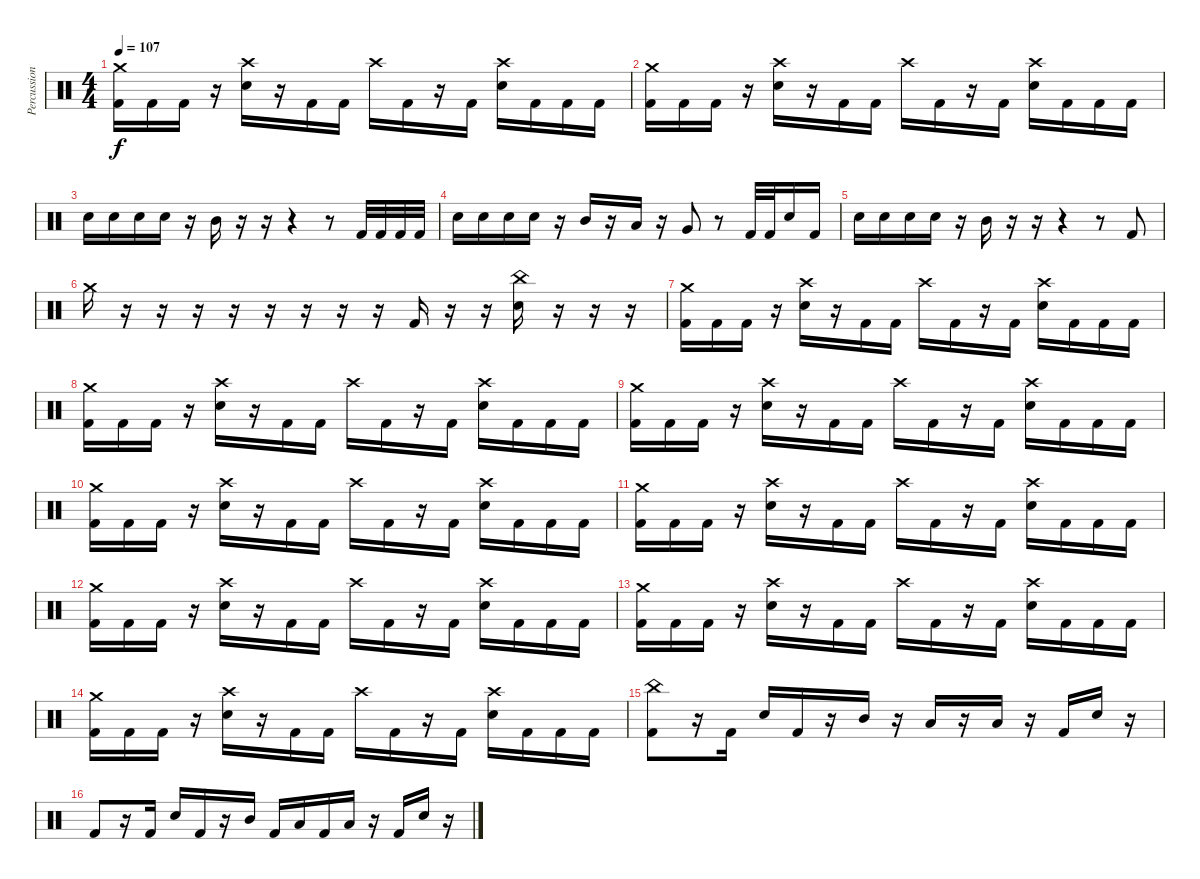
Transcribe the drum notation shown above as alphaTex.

\track ("Percussion" "Percussion") {instrument percussion}
\staff {score}
\articulation defaults
\ts (4 4)
\tempo 107
\clef neutral
\ks c
("Crash medium (hit)" "Kick (hit) 2").16{dy f} "Kick (hit) 2".16 "Kick (hit) 2".16 r.16 ("Crash high (hit)" "Electric Snare (hit)").16 r.16 "Kick (hit) 2".16 "Kick (hit) 2".16 "Crash high (hit)".16 "Kick (hit) 2".16 r.16 "Kick (hit) 2".16 ("Crash high (hit)" "Electric Snare (hit)").16 "Kick (hit) 2".16 "Kick (hit) 2".16 "Kick (hit) 2".16 |
("Crash medium (hit)" "Kick (hit) 2").16 "Kick (hit) 2".16 "Kick (hit) 2".16 r.16 ("Crash high (hit)" "Electric Snare (hit)").16 r.16 "Kick (hit) 2".16 "Kick (hit) 2".16 "Crash high (hit)".16 "Kick (hit) 2".16 r.16 "Kick (hit) 2".16 ("Crash high (hit)" "Electric Snare (hit)").16 "Kick (hit) 2".16 "Kick (hit) 2".16 "Kick (hit) 2".16 |
"Electric Snare (hit)".16 "Electric Snare (hit)".16 "Electric Snare (hit)".16 "Electric Snare (hit)".16 r.16 "Mid Tom (hit)".16 r.16 r.16 r.4 r.8 "Kick (hit) 2".32 "Kick (hit) 2".32 "Kick (hit) 2".32 "Kick (hit) 2".32 |
"Electric Snare (hit)".16 "Electric Snare (hit)".16 "Electric Snare (hit)".16 "Electric Snare (hit)".16 r.16 "Mid Tom (hit)".16 r.16 "Low Tom (hit)".16 r.16 "Very Low Tom (hit)".8 r.8 "Kick (hit) 2".32 "Kick (hit) 2".32 "Electric Snare (hit)".16 "Kick (hit) 2".16 |
"Electric Snare (hit)".16 "Electric Snare (hit)".16 "Electric Snare (hit)".16 "Electric Snare (hit)".16 r.16 "Mid Tom (hit)".16 r.16 r.16 r.4 r.8 "Kick (hit) 2".8 |
"Crash medium (hit)".16 r.16 r.16 r.16 r.16 r.16 r.16 r.16 r.16 "Kick (hit) 2".16 r.16 r.16 ("China (hit)" "Electric Snare (hit)").16 r.16 r.16 r.16 |
("Crash medium (hit)" "Kick (hit) 2").16 "Kick (hit) 2".16 "Kick (hit) 2".16 r.16 ("Crash high (hit)" "Electric Snare (hit)").16 r.16 "Kick (hit) 2".16 "Kick (hit) 2".16 "Crash high (hit)".16 "Kick (hit) 2".16 r.16 "Kick (hit) 2".16 ("Crash high (hit)" "Electric Snare (hit)").16 "Kick (hit) 2".16 "Kick (hit) 2".16 "Kick (hit) 2".16 |
("Crash medium (hit)" "Kick (hit) 2").16 "Kick (hit) 2".16 "Kick (hit) 2".16 r.16 ("Crash high (hit)" "Electric Snare (hit)").16 r.16 "Kick (hit) 2".16 "Kick (hit) 2".16 "Crash high (hit)".16 "Kick (hit) 2".16 r.16 "Kick (hit) 2".16 ("Crash high (hit)" "Electric Snare (hit)").16 "Kick (hit) 2".16 "Kick (hit) 2".16 "Kick (hit) 2".16 |
("Crash medium (hit)" "Kick (hit) 2").16 "Kick (hit) 2".16 "Kick (hit) 2".16 r.16 ("Crash high (hit)" "Electric Snare (hit)").16 r.16 "Kick (hit) 2".16 "Kick (hit) 2".16 "Crash high (hit)".16 "Kick (hit) 2".16 r.16 "Kick (hit) 2".16 ("Crash high (hit)" "Electric Snare (hit)").16 "Kick (hit) 2".16 "Kick (hit) 2".16 "Kick (hit) 2".16 |
("Crash medium (hit)" "Kick (hit) 2").16 "Kick (hit) 2".16 "Kick (hit) 2".16 r.16 ("Crash high (hit)" "Electric Snare (hit)").16 r.16 "Kick (hit) 2".16 "Kick (hit) 2".16 "Crash high (hit)".16 "Kick (hit) 2".16 r.16 "Kick (hit) 2".16 ("Crash high (hit)" "Electric Snare (hit)").16 "Kick (hit) 2".16 "Kick (hit) 2".16 "Kick (hit) 2".16 |
("Crash medium (hit)" "Kick (hit) 2").16 "Kick (hit) 2".16 "Kick (hit) 2".16 r.16 ("Crash high (hit)" "Electric Snare (hit)").16 r.16 "Kick (hit) 2".16 "Kick (hit) 2".16 "Crash high (hit)".16 "Kick (hit) 2".16 r.16 "Kick (hit) 2".16 ("Crash high (hit)" "Electric Snare (hit)").16 "Kick (hit) 2".16 "Kick (hit) 2".16 "Kick (hit) 2".16 |
("Crash medium (hit)" "Kick (hit) 2").16 "Kick (hit) 2".16 "Kick (hit) 2".16 r.16 ("Crash high (hit)" "Electric Snare (hit)").16 r.16 "Kick (hit) 2".16 "Kick (hit) 2".16 "Crash high (hit)".16 "Kick (hit) 2".16 r.16 "Kick (hit) 2".16 ("Crash high (hit)" "Electric Snare (hit)").16 "Kick (hit) 2".16 "Kick (hit) 2".16 "Kick (hit) 2".16 |
("Crash medium (hit)" "Kick (hit) 2").16 "Kick (hit) 2".16 "Kick (hit) 2".16 r.16 ("Crash high (hit)" "Electric Snare (hit)").16 r.16 "Kick (hit) 2".16 "Kick (hit) 2".16 "Crash high (hit)".16 "Kick (hit) 2".16 r.16 "Kick (hit) 2".16 ("Crash high (hit)" "Electric Snare (hit)").16 "Kick (hit) 2".16 "Kick (hit) 2".16 "Kick (hit) 2".16 |
("Crash medium (hit)" "Kick (hit) 2").16 "Kick (hit) 2".16 "Kick (hit) 2".16 r.16 ("Crash high (hit)" "Electric Snare (hit)").16 r.16 "Kick (hit) 2".16 "Kick (hit) 2".16 "Crash high (hit)".16 "Kick (hit) 2".16 r.16 "Kick (hit) 2".16 ("Crash high (hit)" "Electric Snare (hit)").16 "Kick (hit) 2".16 "Kick (hit) 2".16 "Kick (hit) 2".16 |
("Kick (hit) 2" "China (hit)").8 r.16 "Kick (hit) 2".16 "Electric Snare (hit)".16 "Kick (hit) 2".16 r.16 "Mid Tom (hit)".16 r.16 "Low Tom (hit)".16 r.16 "Low Floor Tom (hit)".16 r.16 "Kick (hit) 2".16 "Electric Snare (hit)".16 r.16 |
"Kick (hit) 2".8 r.16 "Kick (hit) 2".16 "Electric Snare (hit)".16 "Kick (hit) 2".16 r.16 "Mid Tom (hit)".16 "Kick (hit) 2".16 "Low Tom (hit)".16 "Kick (hit) 2".16 "Low Floor Tom (hit)".16 r.16 "Kick (hit) 2".16 "Electric Snare (hit)".16 r.16
